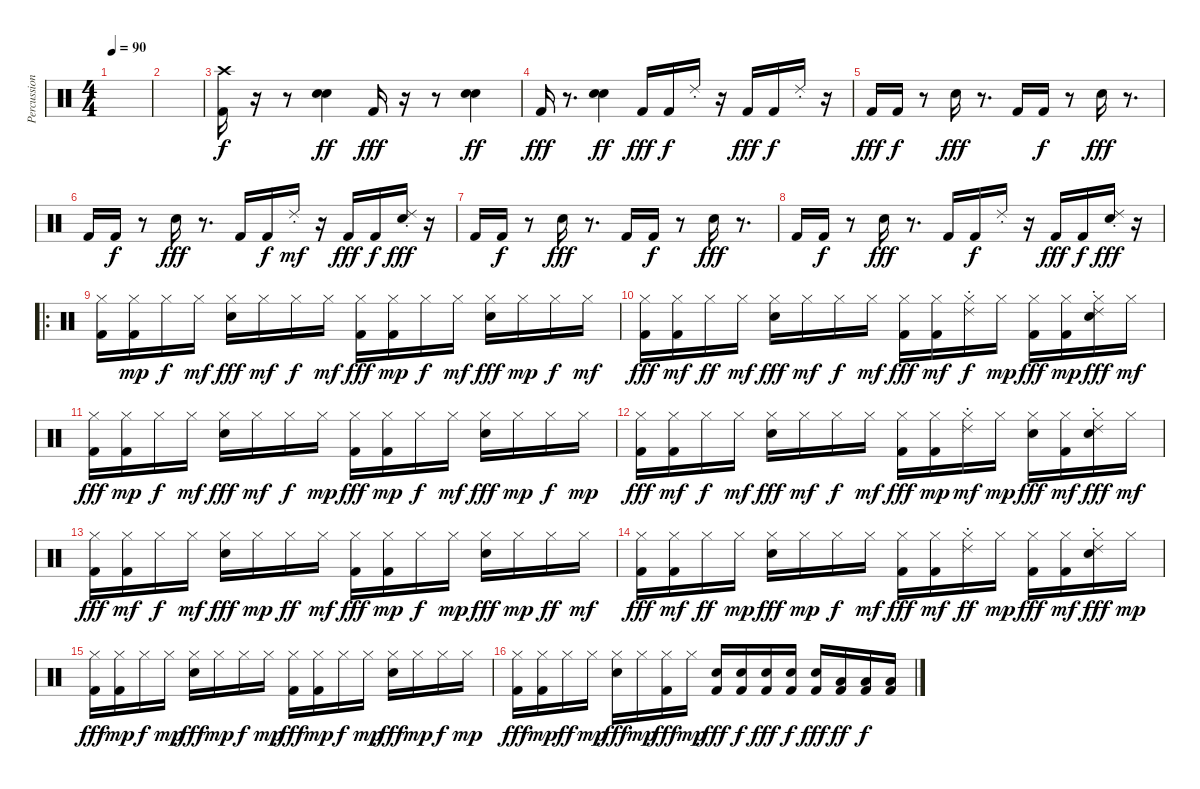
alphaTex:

\track ("Percussion" "Percussion") {instrument percussion}
\staff {score}
\articulation defaults
\ts (4 4)
\tempo 90
\clef neutral
\ks c
|
|
("Crash high (hit)" "Kick (hit) 2").16 r.16 r.8 ("Electric Snare (hit)" "Electric Snare (hit)").4{dy ff} "Kick (hit) 2".16{dy fff} r.16 r.8 ("Electric Snare (hit)" "Electric Snare (hit)").4{dy ff} |
"Kick (hit) 2".16{dy fff} r.8{d} ("Electric Snare (hit)" "Electric Snare (hit)").4{dy ff} "Kick (hit) 2".16{dy fff} "Kick (hit) 2".16{dy f} "Ride (choke) 2".16 r.16 "Kick (hit) 2".16{dy fff} "Kick (hit) 2".16{dy f} "Ride (choke) 2".16 r.16 |
"Kick (hit) 2".16{dy fff} "Kick (hit) 2".16{dy f} r.8 "Electric Snare (hit)".16{dy fff} r.8{d} "Kick (hit) 2".16 "Kick (hit) 2".16{dy f} r.8 "Electric Snare (hit)".16{dy fff} r.8{d} |
"Kick (hit) 2".16 "Kick (hit) 2".16{dy f} r.8 "Electric Snare (hit)".16{dy fff} r.8{d} "Kick (hit) 2".16 "Kick (hit) 2".16{dy f} "Ride (choke) 2".16{dy mf} r.16 "Kick (hit) 2".16{dy fff} "Kick (hit) 2".16{dy f} ("Ride (choke) 2" "Electric Snare (hit)").16{dy fff} r.16 |
"Kick (hit) 2".16 "Kick (hit) 2".16{dy f} r.8 "Electric Snare (hit)".16{dy fff} r.8{d} "Kick (hit) 2".16 "Kick (hit) 2".16{dy f} r.8 "Electric Snare (hit)".16{dy fff} r.8{d} |
"Kick (hit) 2".16 "Kick (hit) 2".16{dy f} r.8 "Electric Snare (hit)".16{dy fff} r.8{d} "Kick (hit) 2".16 "Kick (hit) 2".16{dy f} "Ride (choke) 2".16 r.16 "Kick (hit) 2".16{dy fff} "Kick (hit) 2".16{dy f} ("Ride (choke) 2" "Electric Snare (hit)").16{dy fff} r.16 |
\ro
("Hi-Hat (closed)" "Kick (hit) 2").16 ("Hi-Hat (closed)" "Kick (hit) 2").16{dy mp} "Hi-Hat (closed)".16{dy f} "Hi-Hat (closed)".16{dy mf} ("Hi-Hat (closed)" "Electric Snare (hit)").16{dy fff} "Hi-Hat (closed)".16{dy mf} "Hi-Hat (closed)".16{dy f} "Hi-Hat (closed)".16{dy mf} ("Hi-Hat (closed)" "Kick (hit) 2").16{dy fff} ("Hi-Hat (closed)" "Kick (hit) 2").16{dy mp} "Hi-Hat (closed)".16{dy f} "Hi-Hat (closed)".16{dy mf} ("Hi-Hat (closed)" "Electric Snare (hit)").16{dy fff} "Hi-Hat (closed)".16{dy mp} "Hi-Hat (closed)".16{dy f} "Hi-Hat (closed)".16{dy mf} |
("Hi-Hat (closed)" "Kick (hit) 2").16{dy fff} ("Hi-Hat (closed)" "Kick (hit) 2").16{dy mf} "Hi-Hat (closed)".16{dy ff} "Hi-Hat (closed)".16{dy mf} ("Hi-Hat (closed)" "Electric Snare (hit)").16{dy fff} "Hi-Hat (closed)".16{dy mf} "Hi-Hat (closed)".16{dy f} "Hi-Hat (closed)".16{dy mf} ("Hi-Hat (closed)" "Kick (hit) 2").16{dy fff} ("Hi-Hat (closed)" "Kick (hit) 2").16{dy mf} ("Ride (choke) 2" "Hi-Hat (closed)").16{dy f} "Hi-Hat (closed)".16{dy mp} ("Hi-Hat (closed)" "Kick (hit) 2").16{dy fff} ("Hi-Hat (closed)" "Kick (hit) 2").16{dy mp} ("Ride (choke) 2" "Hi-Hat (closed)" "Electric Snare (hit)").16{dy fff} "Hi-Hat (closed)".16{dy mf} |
("Hi-Hat (closed)" "Kick (hit) 2").16{dy fff} ("Hi-Hat (closed)" "Kick (hit) 2").16{dy mp} "Hi-Hat (closed)".16{dy f} "Hi-Hat (closed)".16{dy mf} ("Hi-Hat (closed)" "Electric Snare (hit)").16{dy fff} "Hi-Hat (closed)".16{dy mf} "Hi-Hat (closed)".16{dy f} "Hi-Hat (closed)".16{dy mp} ("Hi-Hat (closed)" "Kick (hit) 2").16{dy fff} ("Hi-Hat (closed)" "Kick (hit) 2").16{dy mp} "Hi-Hat (closed)".16{dy f} "Hi-Hat (closed)".16{dy mf} ("Hi-Hat (closed)" "Electric Snare (hit)").16{dy fff} "Hi-Hat (closed)".16{dy mp} "Hi-Hat (closed)".16{dy f} "Hi-Hat (closed)".16{dy mp} |
("Hi-Hat (closed)" "Kick (hit) 2").16{dy fff} ("Hi-Hat (closed)" "Kick (hit) 2").16{dy mf} "Hi-Hat (closed)".16{dy f} "Hi-Hat (closed)".16{dy mf} ("Hi-Hat (closed)" "Electric Snare (hit)").16{dy fff} "Hi-Hat (closed)".16{dy mf} "Hi-Hat (closed)".16{dy f} "Hi-Hat (closed)".16{dy mf} ("Hi-Hat (closed)" "Kick (hit) 2").16{dy fff} ("Hi-Hat (closed)" "Kick (hit) 2").16{dy mp} ("Ride (choke) 2" "Hi-Hat (closed)").16{dy mf} "Hi-Hat (closed)".16{dy mp} ("Hi-Hat (closed)" "Electric Snare (hit)").16{dy fff} ("Hi-Hat (closed)" "Kick (hit) 2").16{dy mf} ("Ride (choke) 2" "Hi-Hat (closed)" "Electric Snare (hit)").16{dy fff} "Hi-Hat (closed)".16{dy mf} |
("Hi-Hat (closed)" "Kick (hit) 2").16{dy fff} ("Hi-Hat (closed)" "Kick (hit) 2").16{dy mf} "Hi-Hat (closed)".16{dy f} "Hi-Hat (closed)".16{dy mf} ("Hi-Hat (closed)" "Electric Snare (hit)").16{dy fff} "Hi-Hat (closed)".16{dy mp} "Hi-Hat (closed)".16{dy ff} "Hi-Hat (closed)".16{dy mf} ("Hi-Hat (closed)" "Kick (hit) 2").16{dy fff} ("Hi-Hat (closed)" "Kick (hit) 2").16{dy mp} "Hi-Hat (closed)".16{dy f} "Hi-Hat (closed)".16{dy mp} ("Hi-Hat (closed)" "Electric Snare (hit)").16{dy fff} "Hi-Hat (closed)".16{dy mp} "Hi-Hat (closed)".16{dy ff} "Hi-Hat (closed)".16{dy mf} |
("Hi-Hat (closed)" "Kick (hit) 2").16{dy fff} ("Hi-Hat (closed)" "Kick (hit) 2").16{dy mf} "Hi-Hat (closed)".16{dy ff} "Hi-Hat (closed)".16{dy mp} ("Hi-Hat (closed)" "Electric Snare (hit)").16{dy fff} "Hi-Hat (closed)".16{dy mp} "Hi-Hat (closed)".16{dy f} "Hi-Hat (closed)".16{dy mf} ("Hi-Hat (closed)" "Kick (hit) 2").16{dy fff} ("Hi-Hat (closed)" "Kick (hit) 2").16{dy mf} ("Ride (choke) 2" "Hi-Hat (closed)").16{dy ff} "Hi-Hat (closed)".16{dy mp} ("Hi-Hat (closed)" "Kick (hit) 2").16{dy fff} ("Hi-Hat (closed)" "Kick (hit) 2").16{dy mf} ("Ride (choke) 2" "Hi-Hat (closed)" "Electric Snare (hit)").16{dy fff} "Hi-Hat (closed)".16{dy mp} |
("Hi-Hat (closed)" "Kick (hit) 2").16{dy fff} ("Hi-Hat (closed)" "Kick (hit) 2").16{dy mp} "Hi-Hat (closed)".16{dy f} "Hi-Hat (closed)".16{dy mp} ("Hi-Hat (closed)" "Electric Snare (hit)").16{dy fff} "Hi-Hat (closed)".16{dy mp} "Hi-Hat (closed)".16{dy f} "Hi-Hat (closed)".16{dy mp} ("Hi-Hat (closed)" "Kick (hit) 2").16{dy fff} ("Hi-Hat (closed)" "Kick (hit) 2").16{dy mp} "Hi-Hat (closed)".16{dy f} "Hi-Hat (closed)".16{dy mp} ("Hi-Hat (closed)" "Electric Snare (hit)").16{dy fff} "Hi-Hat (closed)".16{dy mp} "Hi-Hat (closed)".16{dy f} "Hi-Hat (closed)".16{dy mp} |
("Hi-Hat (closed)" "Kick (hit) 2").16{dy fff} ("Hi-Hat (closed)" "Kick (hit) 2").16{dy mp} "Hi-Hat (closed)".16{dy ff} "Hi-Hat (closed)".16{dy mp} ("Hi-Hat (closed)" "Electric Snare (hit)").16{dy fff} "Hi-Hat (closed)".16{dy mp} ("Hi-Hat (closed)" "Kick (hit) 2").16{dy fff} "Hi-Hat (closed)".16{dy mp} ("Electric Snare (hit)" "Kick (hit) 2").16{dy fff} ("Electric Snare (hit)" "Kick (hit) 2").16{dy f} ("Electric Snare (hit)" "Kick (hit) 2").16{dy fff} ("Electric Snare (hit)" "Kick (hit) 2").16{dy f} ("Electric Snare (hit)" "Kick (hit) 2").16{dy fff} ("Low Tom (hit)" "Kick (hit) 2").16{dy ff} ("Low Tom (hit)" "Kick (hit) 2").16{dy f} ("Low Floor Tom (hit)" "Kick (hit) 2").16
